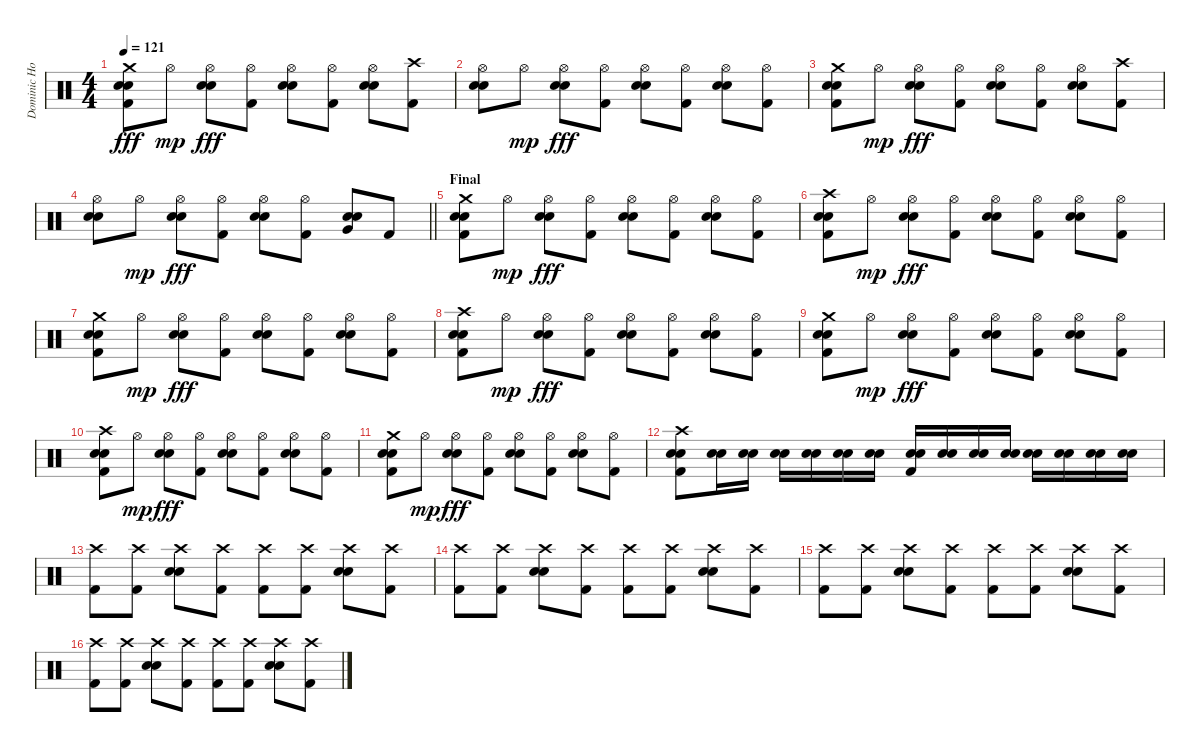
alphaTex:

\track ("Dominic Howard" "Dominic Ho") {instrument percussion}
\staff {score}
\articulation defaults
\ts (4 4)
\tempo 121
\clef neutral
\ks c
("Crash medium (hit)" "Snare (hit) 2" "Electric Snare (hit)" "Kick (hit) 2").8{dy fff} "Hi-Hat (open)".8{dy mp} ("Hi-Hat (open)" "Snare (hit) 2" "Electric Snare (hit)").8{dy fff} ("Hi-Hat (open)" "Kick (hit) 2").8 ("Hi-Hat (open)" "Snare (hit) 2" "Electric Snare (hit)").8 ("Hi-Hat (open)" "Kick (hit) 2").8 ("Hi-Hat (open)" "Snare (hit) 2" "Electric Snare (hit)").8 ("Crash high (hit)" "Kick (hit) 2").8 |
("Hi-Hat (open)" "Snare (hit) 2" "Electric Snare (hit)").8 "Hi-Hat (open)".8{dy mp} ("Hi-Hat (open)" "Snare (hit) 2" "Electric Snare (hit)").8{dy fff} ("Hi-Hat (open)" "Kick (hit) 2").8 ("Hi-Hat (open)" "Snare (hit) 2" "Electric Snare (hit)").8 ("Hi-Hat (open)" "Kick (hit) 2").8 ("Hi-Hat (open)" "Snare (hit) 2" "Electric Snare (hit)").8 ("Hi-Hat (open)" "Kick (hit) 2").8 |
("Crash medium (hit)" "Snare (hit) 2" "Electric Snare (hit)" "Kick (hit) 2").8 "Hi-Hat (open)".8{dy mp} ("Hi-Hat (open)" "Snare (hit) 2" "Electric Snare (hit)").8{dy fff} ("Hi-Hat (open)" "Kick (hit) 2").8 ("Hi-Hat (open)" "Snare (hit) 2" "Electric Snare (hit)").8 ("Hi-Hat (open)" "Kick (hit) 2").8 ("Hi-Hat (open)" "Snare (hit) 2" "Electric Snare (hit)").8 ("Crash high (hit)" "Kick (hit) 2").8 |
\barLineRight lightlight
("Hi-Hat (open)" "Snare (hit) 2" "Electric Snare (hit)").8 "Hi-Hat (open)".8{dy mp} ("Hi-Hat (open)" "Snare (hit) 2" "Electric Snare (hit)").8{dy fff} ("Hi-Hat (open)" "Kick (hit) 2").8 ("Hi-Hat (open)" "Snare (hit) 2" "Electric Snare (hit)").8 ("Hi-Hat (open)" "Kick (hit) 2").8 ("Snare (hit) 2" "Electric Snare (hit)" "Very Low Tom (hit)").8 "Kick (hit) 2".8 |
\section ("" "Final")
("Crash medium (hit)" "Snare (hit) 2" "Electric Snare (hit)" "Kick (hit) 2").8 "Hi-Hat (open)".8{dy mp} ("Hi-Hat (open)" "Snare (hit) 2" "Electric Snare (hit)").8{dy fff} ("Hi-Hat (open)" "Kick (hit) 2").8 ("Hi-Hat (open)" "Snare (hit) 2" "Electric Snare (hit)").8 ("Hi-Hat (open)" "Kick (hit) 2").8 ("Hi-Hat (open)" "Snare (hit) 2" "Electric Snare (hit)").8 ("Hi-Hat (open)" "Kick (hit) 2").8 |
("Crash high (hit)" "Snare (hit) 2" "Electric Snare (hit)" "Kick (hit) 2").8 "Hi-Hat (open)".8{dy mp} ("Hi-Hat (open)" "Snare (hit) 2" "Electric Snare (hit)").8{dy fff} ("Hi-Hat (open)" "Kick (hit) 2").8 ("Hi-Hat (open)" "Snare (hit) 2" "Electric Snare (hit)").8 ("Hi-Hat (open)" "Kick (hit) 2").8 ("Hi-Hat (open)" "Snare (hit) 2" "Electric Snare (hit)").8 ("Hi-Hat (open)" "Kick (hit) 2").8 |
("Crash medium (hit)" "Snare (hit) 2" "Electric Snare (hit)" "Kick (hit) 2").8 "Hi-Hat (open)".8{dy mp} ("Hi-Hat (open)" "Snare (hit) 2" "Electric Snare (hit)").8{dy fff} ("Hi-Hat (open)" "Kick (hit) 2").8 ("Hi-Hat (open)" "Snare (hit) 2" "Electric Snare (hit)").8 ("Hi-Hat (open)" "Kick (hit) 2").8 ("Hi-Hat (open)" "Snare (hit) 2" "Electric Snare (hit)").8 ("Hi-Hat (open)" "Kick (hit) 2").8 |
("Crash high (hit)" "Snare (hit) 2" "Electric Snare (hit)" "Kick (hit) 2").8 "Hi-Hat (open)".8{dy mp} ("Hi-Hat (open)" "Snare (hit) 2" "Electric Snare (hit)").8{dy fff} ("Hi-Hat (open)" "Kick (hit) 2").8 ("Hi-Hat (open)" "Snare (hit) 2" "Electric Snare (hit)").8 ("Hi-Hat (open)" "Kick (hit) 2").8 ("Hi-Hat (open)" "Snare (hit) 2" "Electric Snare (hit)").8 ("Hi-Hat (open)" "Kick (hit) 2").8 |
("Crash medium (hit)" "Snare (hit) 2" "Electric Snare (hit)" "Kick (hit) 2").8 "Hi-Hat (open)".8{dy mp} ("Hi-Hat (open)" "Snare (hit) 2" "Electric Snare (hit)").8{dy fff} ("Hi-Hat (open)" "Kick (hit) 2").8 ("Hi-Hat (open)" "Snare (hit) 2" "Electric Snare (hit)").8 ("Hi-Hat (open)" "Kick (hit) 2").8 ("Hi-Hat (open)" "Snare (hit) 2" "Electric Snare (hit)").8 ("Hi-Hat (open)" "Kick (hit) 2").8 |
("Crash high (hit)" "Snare (hit) 2" "Electric Snare (hit)" "Kick (hit) 2").8 "Hi-Hat (open)".8{dy mp} ("Hi-Hat (open)" "Snare (hit) 2" "Electric Snare (hit)").8{dy fff} ("Hi-Hat (open)" "Kick (hit) 2").8 ("Hi-Hat (open)" "Snare (hit) 2" "Electric Snare (hit)").8 ("Hi-Hat (open)" "Kick (hit) 2").8 ("Hi-Hat (open)" "Snare (hit) 2" "Electric Snare (hit)").8 ("Hi-Hat (open)" "Kick (hit) 2").8 |
("Crash medium (hit)" "Snare (hit) 2" "Electric Snare (hit)" "Kick (hit) 2").8 "Hi-Hat (open)".8{dy mp} ("Hi-Hat (open)" "Snare (hit) 2" "Electric Snare (hit)").8{dy fff} ("Hi-Hat (open)" "Kick (hit) 2").8 ("Hi-Hat (open)" "Snare (hit) 2" "Electric Snare (hit)").8 ("Hi-Hat (open)" "Kick (hit) 2").8 ("Hi-Hat (open)" "Snare (hit) 2" "Electric Snare (hit)").8 ("Hi-Hat (open)" "Kick (hit) 2").8 |
("Crash high (hit)" "Snare (hit) 2" "Electric Snare (hit)" "Kick (hit) 2").8 ("Snare (hit) 2" "Electric Snare (hit)").16 ("Snare (hit) 2" "Electric Snare (hit)").16 ("Snare (hit) 2" "Electric Snare (hit)").16 ("Snare (hit) 2" "Electric Snare (hit)").16 ("Snare (hit) 2" "Electric Snare (hit)").16 ("Snare (hit) 2" "Electric Snare (hit)").16 ("Snare (hit) 2" "Electric Snare (hit)" "Kick (hit) 2").16 ("Snare (hit) 2" "Electric Snare (hit)").16 ("Snare (hit) 2" "Electric Snare (hit)").16 ("Snare (hit) 2" "Electric Snare (hit)").16 ("Snare (hit) 2" "Electric Snare (hit)").16 ("Snare (hit) 2" "Electric Snare (hit)").16 ("Snare (hit) 2" "Electric Snare (hit)").16 ("Snare (hit) 2" "Electric Snare (hit)").16 |
("Crash high (hit)" "Kick (hit) 2").8 ("Crash high (hit)" "Kick (hit) 2").8 ("Crash high (hit)" "Snare (hit) 2" "Electric Snare (hit)").8 ("Crash high (hit)" "Kick (hit) 2").8 ("Crash high (hit)" "Kick (hit) 2").8 ("Crash high (hit)" "Kick (hit) 2").8 ("Crash high (hit)" "Snare (hit) 2" "Electric Snare (hit)").8 ("Crash high (hit)" "Kick (hit) 2").8 |
("Crash high (hit)" "Kick (hit) 2").8 ("Crash high (hit)" "Kick (hit) 2").8 ("Crash high (hit)" "Snare (hit) 2" "Electric Snare (hit)").8 ("Crash high (hit)" "Kick (hit) 2").8 ("Crash high (hit)" "Kick (hit) 2").8 ("Crash high (hit)" "Kick (hit) 2").8 ("Crash high (hit)" "Snare (hit) 2" "Electric Snare (hit)").8 ("Crash high (hit)" "Kick (hit) 2").8 |
("Crash high (hit)" "Kick (hit) 2").8 ("Crash high (hit)" "Kick (hit) 2").8 ("Crash high (hit)" "Snare (hit) 2" "Electric Snare (hit)").8 ("Crash high (hit)" "Kick (hit) 2").8 ("Crash high (hit)" "Kick (hit) 2").8 ("Crash high (hit)" "Kick (hit) 2").8 ("Crash high (hit)" "Snare (hit) 2" "Electric Snare (hit)").8 ("Crash high (hit)" "Kick (hit) 2").8 |
("Crash high (hit)" "Kick (hit) 2").8 ("Crash high (hit)" "Kick (hit) 2").8 ("Crash high (hit)" "Snare (hit) 2" "Electric Snare (hit)").8 ("Crash high (hit)" "Kick (hit) 2").8 ("Crash high (hit)" "Kick (hit) 2").8 ("Crash high (hit)" "Kick (hit) 2").8 ("Crash high (hit)" "Snare (hit) 2" "Electric Snare (hit)").8 ("Crash high (hit)" "Kick (hit) 2").8
